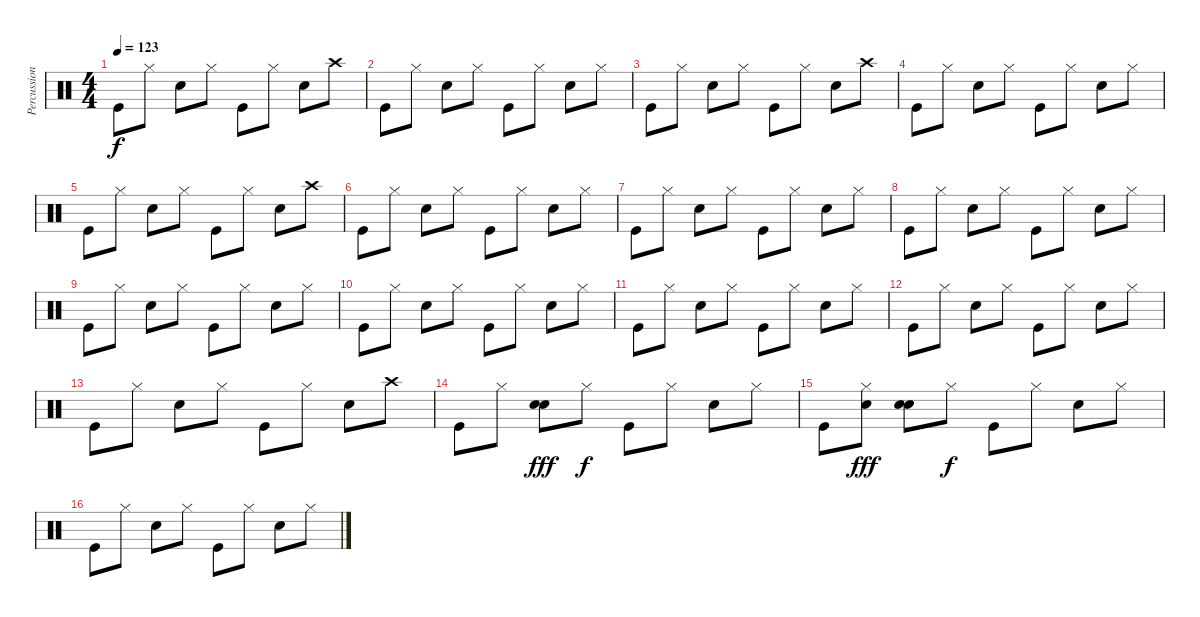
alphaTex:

\track ("Percussion" "Percussion") {instrument percussion}
\staff {score}
\articulation defaults
\ts (4 4)
\tempo 123
\clef neutral
\ks c "Kick (hit)".8{dy f} "Hi-Hat (closed)".8 "Snare (hit) 2".8 "Hi-Hat (closed)".8 "Kick (hit)".8 "Hi-Hat (closed)".8 "Snare (hit) 2".8 "Crash high (hit)".8
|
"Kick (hit)".8 "Hi-Hat (closed)".8 "Snare (hit) 2".8 "Hi-Hat (closed)".8 "Kick (hit)".8 "Hi-Hat (closed)".8 "Snare (hit) 2".8 "Hi-Hat (closed)".8 |
"Kick (hit)".8 "Hi-Hat (closed)".8 "Snare (hit) 2".8 "Hi-Hat (closed)".8 "Kick (hit)".8 "Hi-Hat (closed)".8 "Snare (hit) 2".8 "Crash high (hit)".8 |
"Kick (hit)".8 "Hi-Hat (closed)".8 "Snare (hit) 2".8 "Hi-Hat (closed)".8 "Kick (hit)".8 "Hi-Hat (closed)".8 "Snare (hit) 2".8 "Hi-Hat (closed)".8 |
"Kick (hit)".8 "Hi-Hat (closed)".8 "Snare (hit) 2".8 "Hi-Hat (closed)".8 "Kick (hit)".8 "Hi-Hat (closed)".8 "Snare (hit) 2".8 "Crash high (hit)".8 |
"Kick (hit)".8 "Hi-Hat (closed)".8 "Snare (hit) 2".8 "Hi-Hat (closed)".8 "Kick (hit)".8 "Hi-Hat (closed)".8 "Snare (hit) 2".8 "Hi-Hat (closed)".8 |
"Kick (hit)".8 "Hi-Hat (closed)".8 "Snare (hit) 2".8 "Hi-Hat (closed)".8 "Kick (hit)".8 "Hi-Hat (closed)".8 "Snare (hit) 2".8 "Hi-Hat (closed)".8 |
"Kick (hit)".8 "Hi-Hat (closed)".8 "Snare (hit) 2".8 "Hi-Hat (closed)".8 "Kick (hit)".8 "Hi-Hat (closed)".8 "Snare (hit) 2".8 "Hi-Hat (closed)".8 |
"Kick (hit)".8 "Hi-Hat (closed)".8 "Snare (hit) 2".8 "Hi-Hat (closed)".8 "Kick (hit)".8 "Hi-Hat (closed)".8 "Snare (hit) 2".8 "Hi-Hat (closed)".8 |
"Kick (hit)".8 "Hi-Hat (closed)".8 "Snare (hit) 2".8 "Hi-Hat (closed)".8 "Kick (hit)".8 "Hi-Hat (closed)".8 "Snare (hit) 2".8 "Hi-Hat (closed)".8 |
"Kick (hit)".8 "Hi-Hat (closed)".8 "Snare (hit) 2".8 "Hi-Hat (closed)".8 "Kick (hit)".8 "Hi-Hat (closed)".8 "Snare (hit) 2".8 "Hi-Hat (closed)".8 |
"Kick (hit)".8 "Hi-Hat (closed)".8 "Snare (hit) 2".8 "Hi-Hat (closed)".8 "Kick (hit)".8 "Hi-Hat (closed)".8 "Snare (hit) 2".8 "Hi-Hat (closed)".8 |
"Kick (hit)".8 "Hi-Hat (closed)".8 "Snare (hit) 2".8 "Hi-Hat (closed)".8 "Kick (hit)".8 "Hi-Hat (closed)".8 "Snare (hit) 2".8 "Crash high (hit)".8 |
"Kick (hit)".8 "Hi-Hat (closed)".8 ("Hand Clap (hit)" "Snare (hit) 2").8{dy fff} "Hi-Hat (closed)".8{dy f} "Kick (hit)".8 "Hi-Hat (closed)".8 "Snare (hit) 2".8 "Hi-Hat (closed)".8 |
"Kick (hit)".8 ("Hi-Hat (closed)" "Hand Clap (hit)").8{dy fff} ("Hand Clap (hit)" "Snare (hit) 2").8 "Hi-Hat (closed)".8{dy f} "Kick (hit)".8 "Hi-Hat (closed)".8 "Snare (hit) 2".8 "Hi-Hat (closed)".8 |
"Kick (hit)".8 "Hi-Hat (closed)".8 "Snare (hit) 2".8 "Hi-Hat (closed)".8 "Kick (hit)".8 "Hi-Hat (closed)".8 "Snare (hit) 2".8 "Hi-Hat (closed)".8
